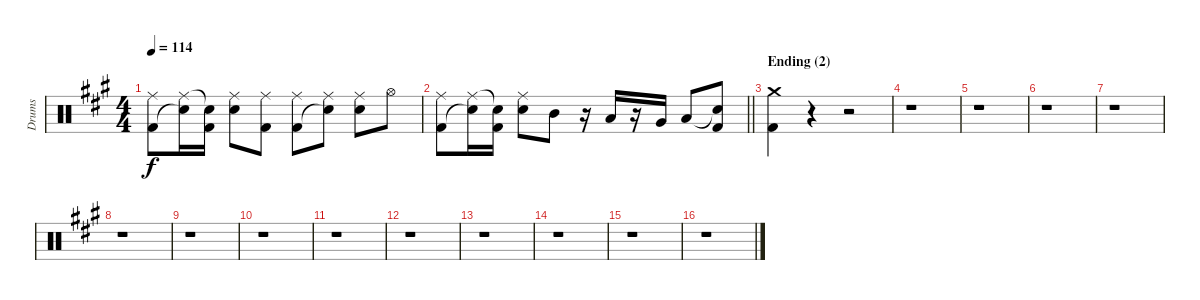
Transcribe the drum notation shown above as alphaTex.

\track ("Drums" "Drums") {instrument percussion}
\staff {score}
\articulation defaults
\ts (4 4)
\tempo 114
\clef neutral
\ks a
("Ride (middle)" "Kick (hit) 2").8{dy f} ("Ride (middle)" "Snare (hit)"{t}).16 ("Snare (hit)"{t} "Kick (hit) 2").16 ("Ride (middle)" "Electric Snare (hit)").8 ("Ride (middle)" "Kick (hit) 2").8 ("Ride (middle)" "Kick (hit) 2").8 ("Ride (middle)" "Snare (hit)"{t}).8 ("Ride (middle)" "Electric Snare (hit)").8 "Hi-Hat (open)".8 |
\barLineRight lightlight
("Ride (middle)" "Kick (hit) 2").8 ("Ride (middle)" "Snare (hit)"{t}).16 ("Snare (hit)"{t} "Kick (hit) 2").16 ("Ride (middle)" "Electric Snare (hit)").8 "Mid Tom (hit)".8 r.16 "Low Tom (hit)".16 r.16 "Very Low Tom (hit)".16 "Low Floor Tom (hit)".8 ("Snare (hit)"{t} "Kick (hit) 2").8 |
\section ("" "Ending (2)")
("Crash medium (hit)" "Kick (hit) 2").4 r.4 r.2 |
r.1 |
r.1 |
r.1 |
r.1 |
r.1 |
r.1 |
r.1 |
r.1 |
r.1 |
r.1 |
r.1 |
r.1 |
r.1
